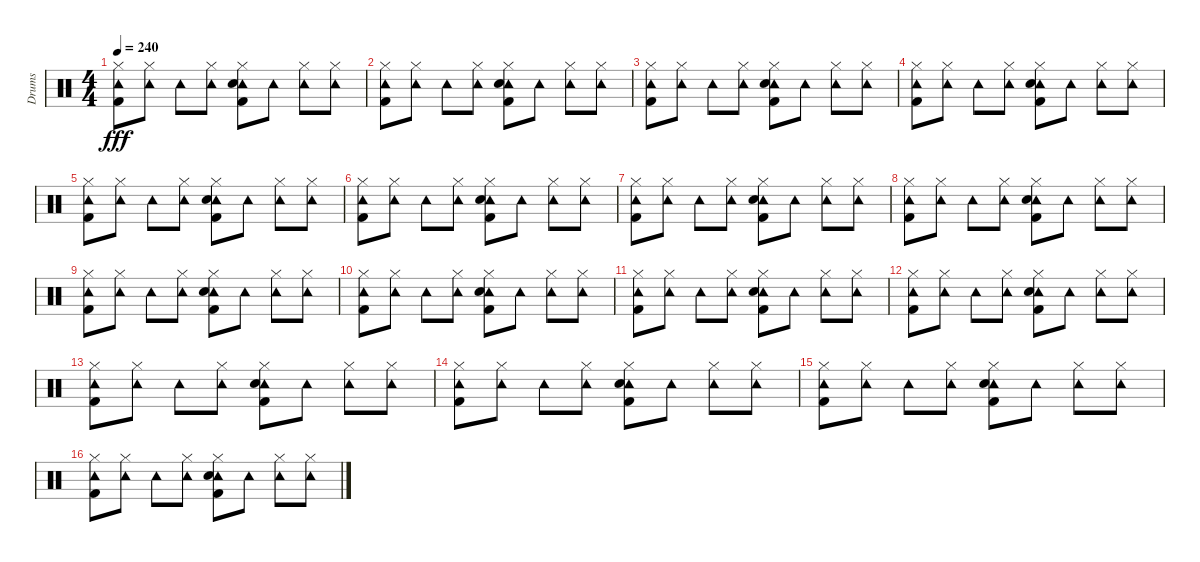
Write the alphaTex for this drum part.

\track ("Drums" "Drums") {instrument percussion}
\staff {score}
\articulation defaults
\ts (4 4)
\tempo 240
\clef neutral
\ks c
("Tambourine (hit)" "Hi-Hat (closed)" "Kick (hit) 2").8{dy fff} ("Tambourine (hit)" "Hi-Hat (closed)").8 "Tambourine (hit)".8 ("Tambourine (hit)" "Hi-Hat (closed)").8 ("Tambourine (hit)" "Hi-Hat (closed)" "Hand Clap (hit)" "Kick (hit) 2").8 "Tambourine (hit)".8 ("Tambourine (hit)" "Hi-Hat (closed)").8 ("Tambourine (hit)" "Hi-Hat (closed)").8 |
("Tambourine (hit)" "Hi-Hat (closed)" "Kick (hit) 2").8 ("Tambourine (hit)" "Hi-Hat (closed)").8 "Tambourine (hit)".8 ("Tambourine (hit)" "Hi-Hat (closed)").8 ("Tambourine (hit)" "Hi-Hat (closed)" "Hand Clap (hit)" "Kick (hit) 2").8 "Tambourine (hit)".8 ("Tambourine (hit)" "Hi-Hat (closed)").8 ("Tambourine (hit)" "Hi-Hat (closed)").8 |
("Tambourine (hit)" "Hi-Hat (closed)" "Kick (hit) 2").8 ("Tambourine (hit)" "Hi-Hat (closed)").8 "Tambourine (hit)".8 ("Tambourine (hit)" "Hi-Hat (closed)").8 ("Tambourine (hit)" "Hi-Hat (closed)" "Hand Clap (hit)" "Kick (hit) 2").8 "Tambourine (hit)".8 ("Tambourine (hit)" "Hi-Hat (closed)").8 ("Tambourine (hit)" "Hi-Hat (closed)").8 |
("Tambourine (hit)" "Hi-Hat (closed)" "Kick (hit) 2").8 ("Tambourine (hit)" "Hi-Hat (closed)").8 "Tambourine (hit)".8 ("Tambourine (hit)" "Hi-Hat (closed)").8 ("Tambourine (hit)" "Hi-Hat (closed)" "Hand Clap (hit)" "Kick (hit) 2").8 "Tambourine (hit)".8 ("Tambourine (hit)" "Hi-Hat (closed)").8 ("Tambourine (hit)" "Hi-Hat (closed)").8 |
("Tambourine (hit)" "Hi-Hat (closed)" "Kick (hit) 2").8 ("Tambourine (hit)" "Hi-Hat (closed)").8 "Tambourine (hit)".8 ("Tambourine (hit)" "Hi-Hat (closed)").8 ("Tambourine (hit)" "Hi-Hat (closed)" "Snare (hit) 2" "Kick (hit) 2").8 "Tambourine (hit)".8 ("Tambourine (hit)" "Hi-Hat (closed)").8 ("Tambourine (hit)" "Hi-Hat (closed)").8 |
("Tambourine (hit)" "Hi-Hat (closed)" "Kick (hit) 2").8 ("Tambourine (hit)" "Hi-Hat (closed)").8 "Tambourine (hit)".8 ("Tambourine (hit)" "Hi-Hat (closed)").8 ("Tambourine (hit)" "Hi-Hat (closed)" "Snare (hit) 2" "Kick (hit) 2").8 "Tambourine (hit)".8 ("Tambourine (hit)" "Hi-Hat (closed)").8 ("Tambourine (hit)" "Hi-Hat (closed)").8 |
("Tambourine (hit)" "Hi-Hat (closed)" "Kick (hit) 2").8 ("Tambourine (hit)" "Hi-Hat (closed)").8 "Tambourine (hit)".8 ("Tambourine (hit)" "Hi-Hat (closed)").8 ("Tambourine (hit)" "Hi-Hat (closed)" "Snare (hit) 2" "Kick (hit) 2").8 "Tambourine (hit)".8 ("Tambourine (hit)" "Hi-Hat (closed)").8 ("Tambourine (hit)" "Hi-Hat (closed)").8 |
("Tambourine (hit)" "Hi-Hat (closed)" "Kick (hit) 2").8 ("Tambourine (hit)" "Hi-Hat (closed)").8 "Tambourine (hit)".8 ("Tambourine (hit)" "Hi-Hat (closed)").8 ("Tambourine (hit)" "Hi-Hat (closed)" "Snare (hit) 2" "Kick (hit) 2").8 "Tambourine (hit)".8 ("Tambourine (hit)" "Hi-Hat (closed)").8 ("Tambourine (hit)" "Hi-Hat (closed)").8 |
("Tambourine (hit)" "Hi-Hat (closed)" "Kick (hit) 2").8 ("Tambourine (hit)" "Hi-Hat (closed)").8 "Tambourine (hit)".8 ("Tambourine (hit)" "Hi-Hat (closed)").8 ("Tambourine (hit)" "Hi-Hat (closed)" "Snare (hit) 2" "Kick (hit) 2").8 "Tambourine (hit)".8 ("Tambourine (hit)" "Hi-Hat (closed)").8 ("Tambourine (hit)" "Hi-Hat (closed)").8 |
("Tambourine (hit)" "Hi-Hat (closed)" "Kick (hit) 2").8 ("Tambourine (hit)" "Hi-Hat (closed)").8 "Tambourine (hit)".8 ("Tambourine (hit)" "Hi-Hat (closed)").8 ("Tambourine (hit)" "Hi-Hat (closed)" "Snare (hit) 2" "Kick (hit) 2").8 "Tambourine (hit)".8 ("Tambourine (hit)" "Hi-Hat (closed)").8 ("Tambourine (hit)" "Hi-Hat (closed)").8 |
("Tambourine (hit)" "Hi-Hat (closed)" "Kick (hit) 2").8 ("Tambourine (hit)" "Hi-Hat (closed)").8 "Tambourine (hit)".8 ("Tambourine (hit)" "Hi-Hat (closed)").8 ("Tambourine (hit)" "Hi-Hat (closed)" "Snare (hit) 2" "Kick (hit) 2").8 "Tambourine (hit)".8 ("Tambourine (hit)" "Hi-Hat (closed)").8 ("Tambourine (hit)" "Hi-Hat (closed)").8 |
("Tambourine (hit)" "Hi-Hat (closed)" "Kick (hit) 2").8 ("Tambourine (hit)" "Hi-Hat (closed)").8 "Tambourine (hit)".8 ("Tambourine (hit)" "Hi-Hat (closed)").8 ("Tambourine (hit)" "Hi-Hat (closed)" "Snare (hit) 2" "Kick (hit) 2").8 "Tambourine (hit)".8 ("Tambourine (hit)" "Hi-Hat (closed)").8 ("Tambourine (hit)" "Hi-Hat (closed)").8 |
("Tambourine (hit)" "Hi-Hat (closed)" "Kick (hit) 2").8 ("Tambourine (hit)" "Hi-Hat (closed)").8 "Tambourine (hit)".8 ("Tambourine (hit)" "Hi-Hat (closed)").8 ("Tambourine (hit)" "Hi-Hat (closed)" "Snare (hit) 2" "Kick (hit) 2").8 "Tambourine (hit)".8 ("Tambourine (hit)" "Hi-Hat (closed)").8 ("Tambourine (hit)" "Hi-Hat (closed)").8 |
("Tambourine (hit)" "Hi-Hat (closed)" "Kick (hit) 2").8 ("Tambourine (hit)" "Hi-Hat (closed)").8 "Tambourine (hit)".8 ("Tambourine (hit)" "Hi-Hat (closed)").8 ("Tambourine (hit)" "Hi-Hat (closed)" "Snare (hit) 2" "Kick (hit) 2").8 "Tambourine (hit)".8 ("Tambourine (hit)" "Hi-Hat (closed)").8 ("Tambourine (hit)" "Hi-Hat (closed)").8 |
("Tambourine (hit)" "Hi-Hat (closed)" "Kick (hit) 2").8 ("Tambourine (hit)" "Hi-Hat (closed)").8 "Tambourine (hit)".8 ("Tambourine (hit)" "Hi-Hat (closed)").8 ("Tambourine (hit)" "Hi-Hat (closed)" "Snare (hit) 2" "Kick (hit) 2").8 "Tambourine (hit)".8 ("Tambourine (hit)" "Hi-Hat (closed)").8 ("Tambourine (hit)" "Hi-Hat (closed)").8 |
("Tambourine (hit)" "Hi-Hat (closed)" "Kick (hit) 2").8 ("Tambourine (hit)" "Hi-Hat (closed)").8 "Tambourine (hit)".8 ("Tambourine (hit)" "Hi-Hat (closed)").8 ("Tambourine (hit)" "Hi-Hat (closed)" "Snare (hit) 2" "Kick (hit) 2").8 "Tambourine (hit)".8 ("Tambourine (hit)" "Hi-Hat (closed)").8 ("Tambourine (hit)" "Hi-Hat (closed)").8
